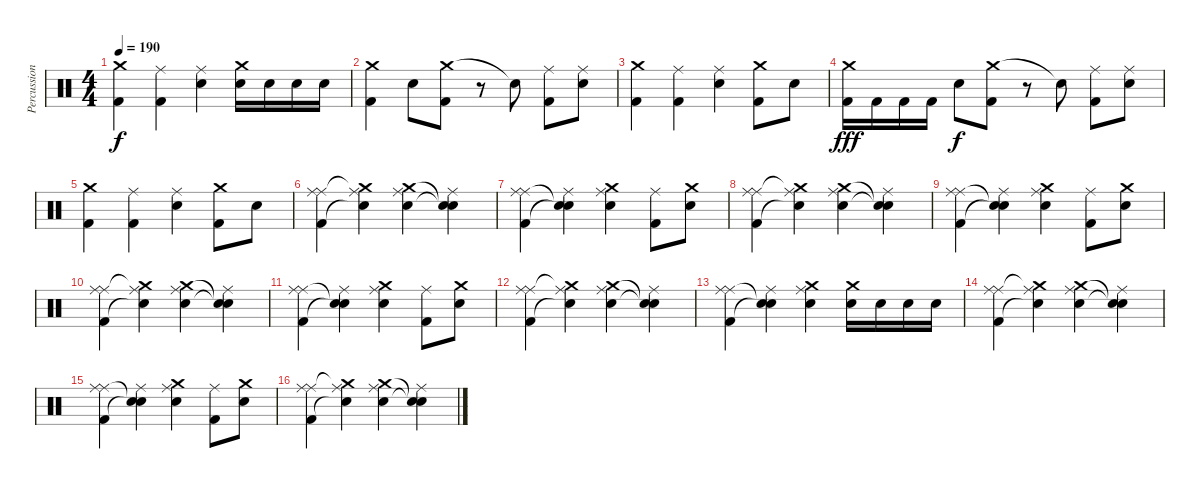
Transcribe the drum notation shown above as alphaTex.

\track ("Percussions" "Percussion") {instrument percussion}
\staff {score}
\articulation defaults
\ts (4 4)
\tempo 190
\clef neutral
\ks c
("Crash medium (hit)" "Kick (hit) 2").4{dy f} ("Ride (middle)" "Kick (hit) 2").4 ("Ride (middle)" "Electric Snare (hit)").4 ("Crash medium (hit)" "Electric Snare (hit)").16 "Electric Snare (hit)".16 "Electric Snare (hit)".16 "Electric Snare (hit)".16 |
("Crash medium (hit)" "Kick (hit) 2").4 "Electric Snare (hit)".8 ("Crash medium (hit)" "Kick (hit) 2").8 r.8 "Snare (hit)"{t}.8 ("Ride (middle)" "Kick (hit) 2").8 ("Ride (middle)" "Electric Snare (hit)").8 |
("Crash medium (hit)" "Kick (hit) 2").4 ("Ride (middle)" "Kick (hit) 2").4 ("Ride (middle)" "Electric Snare (hit)").4 ("Crash medium (hit)" "Kick (hit) 2").8 "Electric Snare (hit)".8 |
("Crash medium (hit)" "Kick (hit) 2").16{dy fff} "Kick (hit) 2".16 "Kick (hit) 2".16 "Kick (hit) 2".16 "Electric Snare (hit)".8{dy f} ("Crash medium (hit)" "Kick (hit) 2").8 r.8 "Snare (hit)"{t}.8 ("Ride (middle)" "Kick (hit) 2").8 ("Ride (middle)" "Electric Snare (hit)").8 |
("Crash medium (hit)" "Kick (hit) 2").4 ("Ride (middle)" "Kick (hit) 2").4 ("Ride (middle)" "Electric Snare (hit)").4 ("Crash medium (hit)" "Kick (hit) 2").8 "Electric Snare (hit)".8 |
("Ride (middle)" "Ride (middle)" "Kick (hit) 2").4 ("Ride (middle)" "Crash medium (hit)"{t} "Electric Snare (hit)"{t}).4 ("Ride (middle)" "Crash medium (hit)" "Electric Snare (hit)").4 ("Ride (middle)" "Snare (hit)"{t} "Snare (hit)"{t}).4 |
("Ride (middle)" "Ride (middle)" "Kick (hit) 2").4 ("Ride (middle)" "Snare (hit)"{t} "Snare (hit)"{t}).4 ("Ride (middle)" "Crash medium (hit)" "Electric Snare (hit)").4 ("Ride (middle)" "Kick (hit) 2").8 ("Crash medium (hit)" "Electric Snare (hit)").8 |
("Ride (middle)" "Ride (middle)" "Kick (hit) 2").4 ("Ride (middle)" "Crash medium (hit)"{t} "Electric Snare (hit)"{t}).4 ("Ride (middle)" "Crash medium (hit)" "Electric Snare (hit)").4 ("Ride (middle)" "Snare (hit)"{t} "Snare (hit)"{t}).4 |
("Ride (middle)" "Ride (middle)" "Kick (hit) 2").4 ("Ride (middle)" "Snare (hit)"{t} "Snare (hit)"{t}).4 ("Ride (middle)" "Crash medium (hit)" "Electric Snare (hit)").4 ("Ride (middle)" "Kick (hit) 2").8 ("Crash medium (hit)" "Electric Snare (hit)").8 |
("Ride (middle)" "Ride (middle)" "Kick (hit) 2").4 ("Ride (middle)" "Crash medium (hit)"{t} "Electric Snare (hit)"{t}).4 ("Ride (middle)" "Crash medium (hit)" "Electric Snare (hit)").4 ("Ride (middle)" "Snare (hit)"{t} "Snare (hit)"{t}).4 |
("Ride (middle)" "Ride (middle)" "Kick (hit) 2").4 ("Ride (middle)" "Snare (hit)"{t} "Snare (hit)"{t}).4 ("Ride (middle)" "Crash medium (hit)" "Electric Snare (hit)").4 ("Ride (middle)" "Kick (hit) 2").8 ("Crash medium (hit)" "Electric Snare (hit)").8 |
("Ride (middle)" "Ride (middle)" "Kick (hit) 2").4 ("Ride (middle)" "Crash medium (hit)"{t} "Electric Snare (hit)"{t}).4 ("Ride (middle)" "Crash medium (hit)" "Electric Snare (hit)").4 ("Ride (middle)" "Snare (hit)"{t} "Snare (hit)"{t}).4 |
("Ride (middle)" "Ride (middle)" "Kick (hit) 2").4 ("Ride (middle)" "Snare (hit)"{t} "Snare (hit)"{t}).4 ("Ride (middle)" "Crash medium (hit)" "Electric Snare (hit)").4 ("Crash medium (hit)" "Electric Snare (hit)").16 "Electric Snare (hit)".16 "Electric Snare (hit)".16 "Electric Snare (hit)".16 |
("Ride (middle)" "Ride (middle)" "Kick (hit) 2").4 ("Ride (middle)" "Crash medium (hit)"{t} "Electric Snare (hit)"{t}).4 ("Ride (middle)" "Crash medium (hit)" "Electric Snare (hit)").4 ("Ride (middle)" "Snare (hit)"{t} "Snare (hit)"{t}).4 |
("Ride (middle)" "Ride (middle)" "Kick (hit) 2").4 ("Ride (middle)" "Snare (hit)"{t} "Snare (hit)"{t}).4 ("Ride (middle)" "Crash medium (hit)" "Electric Snare (hit)").4 ("Ride (middle)" "Kick (hit) 2").8 ("Crash medium (hit)" "Electric Snare (hit)").8 |
("Ride (middle)" "Ride (middle)" "Kick (hit) 2").4 ("Ride (middle)" "Crash medium (hit)"{t} "Electric Snare (hit)"{t}).4 ("Ride (middle)" "Crash medium (hit)" "Electric Snare (hit)").4 ("Ride (middle)" "Snare (hit)"{t} "Snare (hit)"{t}).4
